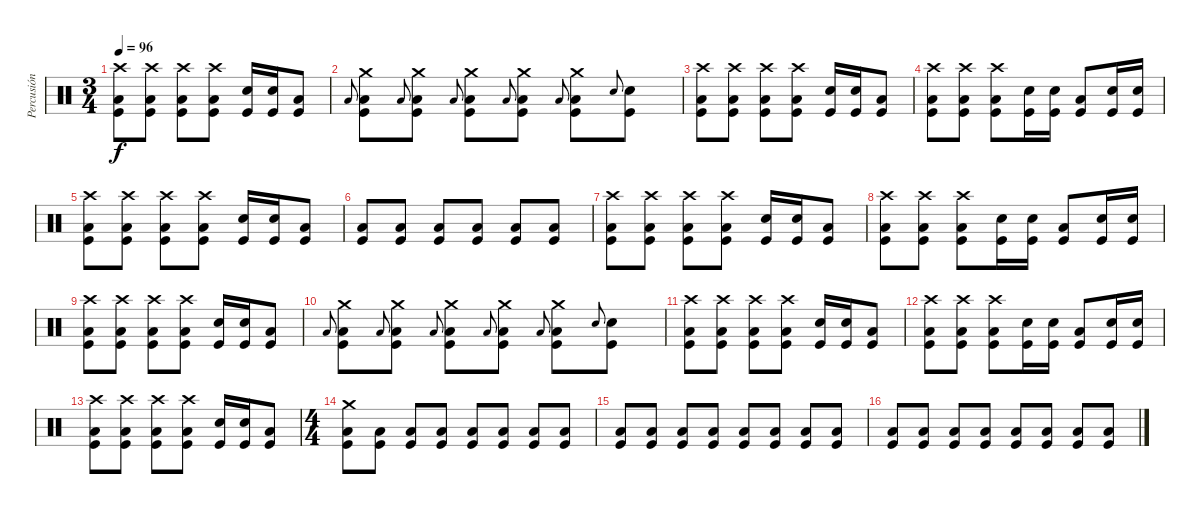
\track ("Percusión" "Percusión") {instrument percussion}
\staff {score}
\articulation defaults
\ts (3 4)
\tempo 96
\clef neutral
\ks c
("Crash high (hit)" "Low Floor Tom (hit)" "Kick (hit)").8{dy f} ("Crash high (hit)" "Low Floor Tom (hit)" "Kick (hit)").8 ("Crash high (hit)" "Low Floor Tom (hit)" "Kick (hit)").8 ("Crash high (hit)" "Low Floor Tom (hit)" "Kick (hit)").8 ("Snare (hit) 2" "Kick (hit)").16 ("Snare (hit) 2" "Kick (hit)").16 ("Low Floor Tom (hit)" "Kick (hit)").8 |
"Low Floor Tom (hit)".8{gr onbeat} ("Crash medium (hit)" "Low Floor Tom (hit)" "Kick (hit)").8 "Low Floor Tom (hit)".8{gr onbeat} ("Crash medium (hit)" "Low Floor Tom (hit)" "Kick (hit)").8 "Low Floor Tom (hit)".8{gr onbeat} ("Crash medium (hit)" "Low Floor Tom (hit)" "Kick (hit)").8 "Low Floor Tom (hit)".8{gr onbeat} ("Crash medium (hit)" "Low Floor Tom (hit)" "Kick (hit)").8 "Low Floor Tom (hit)".8{gr onbeat} ("Crash medium (hit)" "Low Floor Tom (hit)" "Kick (hit)").8 "Snare (hit) 2".8{gr onbeat} ("Snare (hit) 2" "Kick (hit)").8 |
("Crash high (hit)" "Low Floor Tom (hit)" "Kick (hit)").8 ("Crash high (hit)" "Low Floor Tom (hit)" "Kick (hit)").8 ("Crash high (hit)" "Low Floor Tom (hit)" "Kick (hit)").8 ("Crash high (hit)" "Low Floor Tom (hit)" "Kick (hit)").8 ("Snare (hit) 2" "Kick (hit)").16 ("Snare (hit) 2" "Kick (hit)").16 ("Low Floor Tom (hit)" "Kick (hit)").8 |
("Crash high (hit)" "Low Floor Tom (hit)" "Kick (hit)").8 ("Crash high (hit)" "Low Floor Tom (hit)" "Kick (hit)").8 ("Crash high (hit)" "Low Floor Tom (hit)" "Kick (hit)").8 ("Snare (hit) 2" "Kick (hit)").16 ("Snare (hit) 2" "Kick (hit)").16 ("Low Floor Tom (hit)" "Kick (hit)").8 ("Snare (hit) 2" "Kick (hit)").16 ("Snare (hit) 2" "Kick (hit)").16 |
("Crash high (hit)" "Low Floor Tom (hit)" "Kick (hit)").8 ("Crash high (hit)" "Low Floor Tom (hit)" "Kick (hit)").8 ("Crash high (hit)" "Low Floor Tom (hit)" "Kick (hit)").8 ("Crash high (hit)" "Low Floor Tom (hit)" "Kick (hit)").8 ("Snare (hit) 2" "Kick (hit)").16 ("Snare (hit) 2" "Kick (hit)").16 ("Low Floor Tom (hit)" "Kick (hit)").8 |
("Low Floor Tom (hit)" "Kick (hit)").8 ("Low Floor Tom (hit)" "Kick (hit)").8 ("Low Floor Tom (hit)" "Kick (hit)").8 ("Low Floor Tom (hit)" "Kick (hit)").8 ("Low Floor Tom (hit)" "Kick (hit)").8 ("Low Floor Tom (hit)" "Kick (hit)").8 |
("Crash high (hit)" "Low Floor Tom (hit)" "Kick (hit)").8 ("Crash high (hit)" "Low Floor Tom (hit)" "Kick (hit)").8 ("Crash high (hit)" "Low Floor Tom (hit)" "Kick (hit)").8 ("Crash high (hit)" "Low Floor Tom (hit)" "Kick (hit)").8 ("Snare (hit) 2" "Kick (hit)").16 ("Snare (hit) 2" "Kick (hit)").16 ("Low Floor Tom (hit)" "Kick (hit)").8 |
("Crash high (hit)" "Low Floor Tom (hit)" "Kick (hit)").8 ("Crash high (hit)" "Low Floor Tom (hit)" "Kick (hit)").8 ("Crash high (hit)" "Low Floor Tom (hit)" "Kick (hit)").8 ("Snare (hit) 2" "Kick (hit)").16 ("Snare (hit) 2" "Kick (hit)").16 ("Low Floor Tom (hit)" "Kick (hit)").8 ("Snare (hit) 2" "Kick (hit)").16 ("Snare (hit) 2" "Kick (hit)").16 |
("Crash high (hit)" "Low Floor Tom (hit)" "Kick (hit)").8 ("Crash high (hit)" "Low Floor Tom (hit)" "Kick (hit)").8 ("Crash high (hit)" "Low Floor Tom (hit)" "Kick (hit)").8 ("Crash high (hit)" "Low Floor Tom (hit)" "Kick (hit)").8 ("Snare (hit) 2" "Kick (hit)").16 ("Snare (hit) 2" "Kick (hit)").16 ("Low Floor Tom (hit)" "Kick (hit)").8 |
"Low Floor Tom (hit)".8{gr onbeat} ("Crash medium (hit)" "Low Floor Tom (hit)" "Kick (hit)").8 "Low Floor Tom (hit)".8{gr onbeat} ("Crash medium (hit)" "Low Floor Tom (hit)" "Kick (hit)").8 "Low Floor Tom (hit)".8{gr onbeat} ("Crash medium (hit)" "Low Floor Tom (hit)" "Kick (hit)").8 "Low Floor Tom (hit)".8{gr onbeat} ("Crash medium (hit)" "Low Floor Tom (hit)" "Kick (hit)").8 "Low Floor Tom (hit)".8{gr onbeat} ("Crash medium (hit)" "Low Floor Tom (hit)" "Kick (hit)").8 "Snare (hit) 2".8{gr onbeat} ("Snare (hit) 2" "Kick (hit)").8 |
("Crash high (hit)" "Low Floor Tom (hit)" "Kick (hit)").8 ("Crash high (hit)" "Low Floor Tom (hit)" "Kick (hit)").8 ("Crash high (hit)" "Low Floor Tom (hit)" "Kick (hit)").8 ("Crash high (hit)" "Low Floor Tom (hit)" "Kick (hit)").8 ("Snare (hit) 2" "Kick (hit)").16 ("Snare (hit) 2" "Kick (hit)").16 ("Low Floor Tom (hit)" "Kick (hit)").8 |
("Crash high (hit)" "Low Floor Tom (hit)" "Kick (hit)").8 ("Crash high (hit)" "Low Floor Tom (hit)" "Kick (hit)").8 ("Crash high (hit)" "Low Floor Tom (hit)" "Kick (hit)").8 ("Snare (hit) 2" "Kick (hit)").16 ("Snare (hit) 2" "Kick (hit)").16 ("Low Floor Tom (hit)" "Kick (hit)").8 ("Snare (hit) 2" "Kick (hit)").16 ("Snare (hit) 2" "Kick (hit)").16 |
("Crash high (hit)" "Low Floor Tom (hit)" "Kick (hit)").8 ("Crash high (hit)" "Low Floor Tom (hit)" "Kick (hit)").8 ("Crash high (hit)" "Low Floor Tom (hit)" "Kick (hit)").8 ("Crash high (hit)" "Low Floor Tom (hit)" "Kick (hit)").8 ("Snare (hit) 2" "Kick (hit)").16 ("Snare (hit) 2" "Kick (hit)").16 ("Low Floor Tom (hit)" "Kick (hit)").8 |
\ts (4 4)
("Crash medium (hit)" "Low Floor Tom (hit)" "Kick (hit)").8 ("Low Floor Tom (hit)" "Kick (hit)").8 ("Low Floor Tom (hit)" "Kick (hit)").8 ("Low Floor Tom (hit)" "Kick (hit)").8 ("Low Floor Tom (hit)" "Kick (hit)").8 ("Low Floor Tom (hit)" "Kick (hit)").8 ("Low Floor Tom (hit)" "Kick (hit)").8 ("Low Floor Tom (hit)" "Kick (hit)").8 |
("Low Floor Tom (hit)" "Kick (hit)").8 ("Low Floor Tom (hit)" "Kick (hit)").8 ("Low Floor Tom (hit)" "Kick (hit)").8 ("Low Floor Tom (hit)" "Kick (hit)").8 ("Low Floor Tom (hit)" "Kick (hit)").8 ("Low Floor Tom (hit)" "Kick (hit)").8 ("Low Floor Tom (hit)" "Kick (hit)").8 ("Low Floor Tom (hit)" "Kick (hit)").8 |
("Low Floor Tom (hit)" "Kick (hit)").8 ("Low Floor Tom (hit)" "Kick (hit)").8 ("Low Floor Tom (hit)" "Kick (hit)").8 ("Low Floor Tom (hit)" "Kick (hit)").8 ("Low Floor Tom (hit)" "Kick (hit)").8 ("Low Floor Tom (hit)" "Kick (hit)").8 ("Low Floor Tom (hit)" "Kick (hit)").8 ("Low Floor Tom (hit)" "Kick (hit)").8
